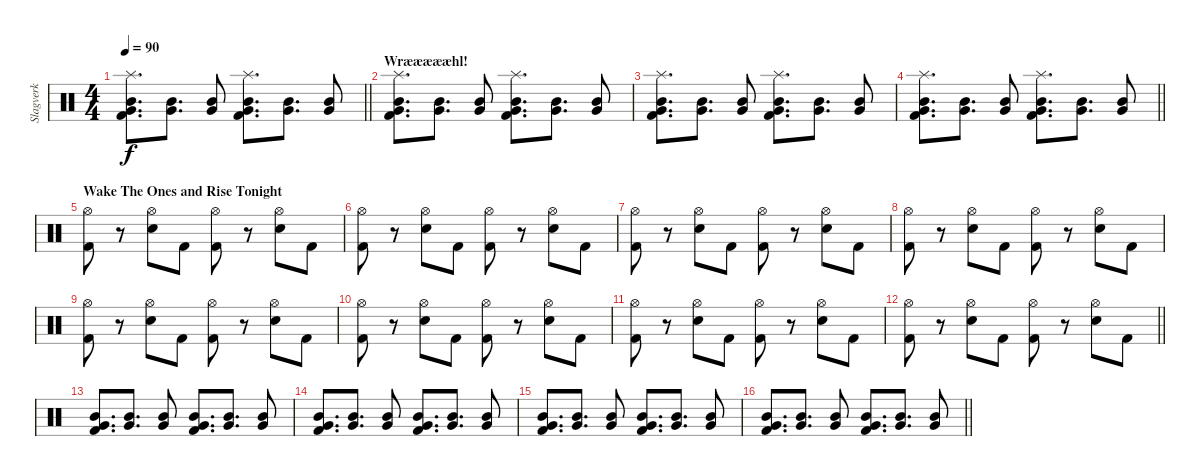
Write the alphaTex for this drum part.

\track ("Slagverk" "Slagverk") {instrument percussion}
\staff {score}
\articulation defaults
\ts (4 4)
\section ("" "")
\tempo 90
\clef neutral
\barLineRight lightlight
\ks c
("Splash (hit)" "Very Low Tom (hit)" "Mid Tom (hit)" "Kick (hit) 2").8{d dy f} ("Very Low Tom (hit)" "Mid Tom (hit)").8{d} ("Very Low Tom (hit)" "Mid Tom (hit)").8 ("Splash (hit)" "Very Low Tom (hit)" "Mid Tom (hit)" "Kick (hit) 2").8{d} ("Very Low Tom (hit)" "Mid Tom (hit)").8{d} ("Very Low Tom (hit)" "Mid Tom (hit)").8 |
\section ("" "Wræææææhl!")
("Splash (hit)" "Very Low Tom (hit)" "Mid Tom (hit)" "Kick (hit) 2").8{d} ("Very Low Tom (hit)" "Mid Tom (hit)").8{d} ("Very Low Tom (hit)" "Mid Tom (hit)").8 ("Splash (hit)" "Very Low Tom (hit)" "Mid Tom (hit)" "Kick (hit) 2").8{d} ("Very Low Tom (hit)" "Mid Tom (hit)").8{d} ("Very Low Tom (hit)" "Mid Tom (hit)").8 |
("Splash (hit)" "Very Low Tom (hit)" "Mid Tom (hit)" "Kick (hit) 2").8{d} ("Very Low Tom (hit)" "Mid Tom (hit)").8{d} ("Very Low Tom (hit)" "Mid Tom (hit)").8 ("Splash (hit)" "Very Low Tom (hit)" "Mid Tom (hit)" "Kick (hit) 2").8{d} ("Very Low Tom (hit)" "Mid Tom (hit)").8{d} ("Very Low Tom (hit)" "Mid Tom (hit)").8 |
\barLineRight lightlight
("Splash (hit)" "Very Low Tom (hit)" "Mid Tom (hit)" "Kick (hit) 2").8{d} ("Very Low Tom (hit)" "Mid Tom (hit)").8{d} ("Very Low Tom (hit)" "Mid Tom (hit)").8 ("Splash (hit)" "Very Low Tom (hit)" "Mid Tom (hit)" "Kick (hit) 2").8{d} ("Very Low Tom (hit)" "Mid Tom (hit)").8{d} ("Very Low Tom (hit)" "Mid Tom (hit)").8 |
\section ("" "Wake The Ones and Rise Tonight")
("Hi-Hat (open)" "Kick (hit) 2").8 r.8 ("Hi-Hat (open)" "Electric Snare (hit)").8 "Kick (hit) 2".8 ("Hi-Hat (open)" "Kick (hit) 2").8 r.8 ("Hi-Hat (open)" "Electric Snare (hit)").8 "Kick (hit) 2".8 |
("Hi-Hat (open)" "Kick (hit) 2").8 r.8 ("Hi-Hat (open)" "Electric Snare (hit)").8 "Kick (hit) 2".8 ("Hi-Hat (open)" "Kick (hit) 2").8 r.8 ("Hi-Hat (open)" "Electric Snare (hit)").8 "Kick (hit) 2".8 |
("Hi-Hat (open)" "Kick (hit) 2").8 r.8 ("Hi-Hat (open)" "Electric Snare (hit)").8 "Kick (hit) 2".8 ("Hi-Hat (open)" "Kick (hit) 2").8 r.8 ("Hi-Hat (open)" "Electric Snare (hit)").8 "Kick (hit) 2".8 |
("Hi-Hat (open)" "Kick (hit) 2").8 r.8 ("Hi-Hat (open)" "Electric Snare (hit)").8 "Kick (hit) 2".8 ("Hi-Hat (open)" "Kick (hit) 2").8 r.8 ("Hi-Hat (open)" "Electric Snare (hit)").8 "Kick (hit) 2".8 |
("Hi-Hat (open)" "Kick (hit) 2").8 r.8 ("Hi-Hat (open)" "Electric Snare (hit)").8 "Kick (hit) 2".8 ("Hi-Hat (open)" "Kick (hit) 2").8 r.8 ("Hi-Hat (open)" "Electric Snare (hit)").8 "Kick (hit) 2".8 |
("Hi-Hat (open)" "Kick (hit) 2").8 r.8 ("Hi-Hat (open)" "Electric Snare (hit)").8 "Kick (hit) 2".8 ("Hi-Hat (open)" "Kick (hit) 2").8 r.8 ("Hi-Hat (open)" "Electric Snare (hit)").8 "Kick (hit) 2".8 |
("Hi-Hat (open)" "Kick (hit) 2").8 r.8 ("Hi-Hat (open)" "Electric Snare (hit)").8 "Kick (hit) 2".8 ("Hi-Hat (open)" "Kick (hit) 2").8 r.8 ("Hi-Hat (open)" "Electric Snare (hit)").8 "Kick (hit) 2".8 |
\barLineRight lightlight
("Hi-Hat (open)" "Kick (hit) 2").8 r.8 ("Hi-Hat (open)" "Electric Snare (hit)").8 "Kick (hit) 2".8 ("Hi-Hat (open)" "Kick (hit) 2").8 r.8 ("Hi-Hat (open)" "Electric Snare (hit)").8 "Kick (hit) 2".8 |
("Very Low Tom (hit)" "Mid Tom (hit)" "Kick (hit) 2").8{d} ("Very Low Tom (hit)" "Mid Tom (hit)").8{d} ("Very Low Tom (hit)" "Mid Tom (hit)").8 ("Very Low Tom (hit)" "Mid Tom (hit)" "Kick (hit) 2").8{d} ("Very Low Tom (hit)" "Mid Tom (hit)").8{d} ("Very Low Tom (hit)" "Mid Tom (hit)").8 |
("Very Low Tom (hit)" "Mid Tom (hit)" "Kick (hit) 2").8{d} ("Very Low Tom (hit)" "Mid Tom (hit)").8{d} ("Very Low Tom (hit)" "Mid Tom (hit)").8 ("Very Low Tom (hit)" "Mid Tom (hit)" "Kick (hit) 2").8{d} ("Very Low Tom (hit)" "Mid Tom (hit)").8{d} ("Very Low Tom (hit)" "Mid Tom (hit)").8 |
("Very Low Tom (hit)" "Mid Tom (hit)" "Kick (hit) 2").8{d} ("Very Low Tom (hit)" "Mid Tom (hit)").8{d} ("Very Low Tom (hit)" "Mid Tom (hit)").8 ("Very Low Tom (hit)" "Mid Tom (hit)" "Kick (hit) 2").8{d} ("Very Low Tom (hit)" "Mid Tom (hit)").8{d} ("Very Low Tom (hit)" "Mid Tom (hit)").8 |
\barLineRight lightlight
("Very Low Tom (hit)" "Mid Tom (hit)" "Kick (hit) 2").8{d} ("Very Low Tom (hit)" "Mid Tom (hit)").8{d} ("Very Low Tom (hit)" "Mid Tom (hit)").8 ("Very Low Tom (hit)" "Mid Tom (hit)" "Kick (hit) 2").8{d} ("Very Low Tom (hit)" "Mid Tom (hit)").8{d} ("Very Low Tom (hit)" "Mid Tom (hit)").8
